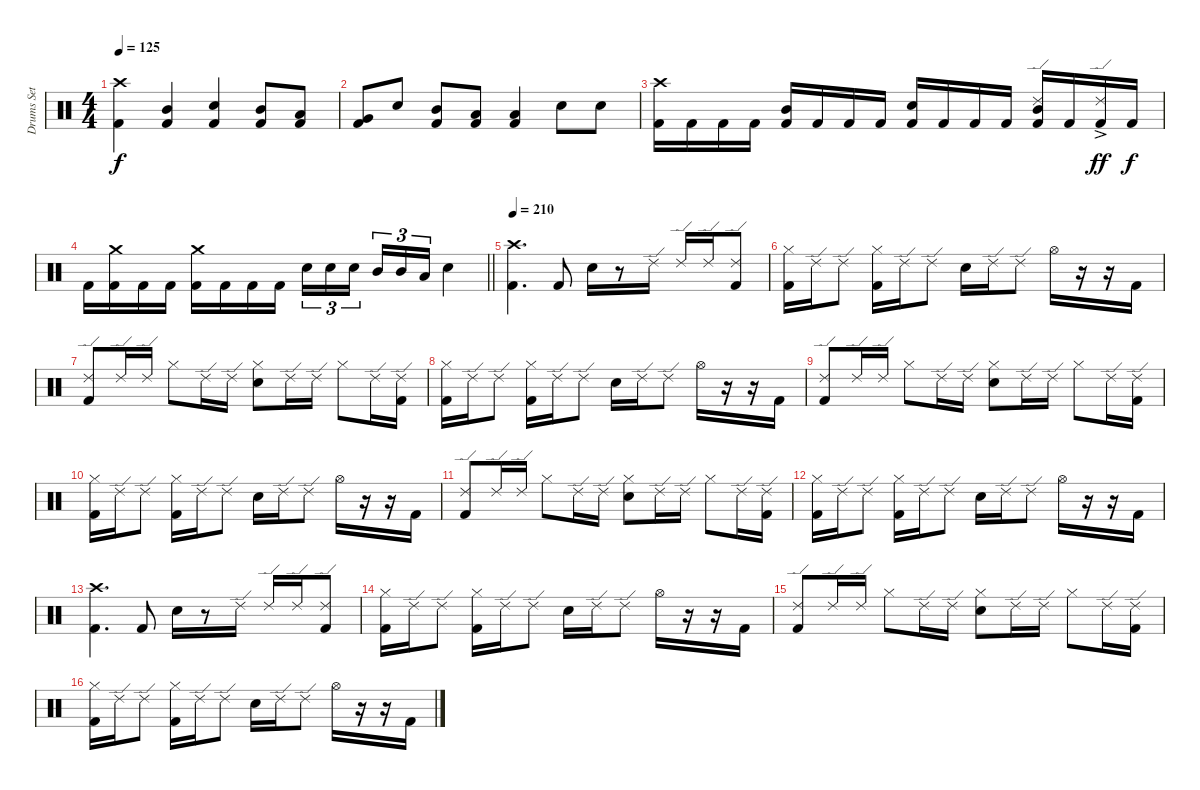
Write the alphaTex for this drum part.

\track ("Drums Set" "Drums Set") {instrument percussion}
\staff {score}
\articulation defaults
\ts (4 4)
\tempo 125
\clef neutral
\ks c
("Crash high (hit)" "Kick (hit) 2").4{dy f} ("Mid Tom (hit)" "Kick (hit) 2").4 ("Snare (hit) 2" "Kick (hit) 2").4 ("Mid Tom (hit)" "Kick (hit) 2").8 ("Low Tom (hit)" "Kick (hit) 2").8 |
("Very Low Tom (hit)" "Kick (hit) 2").8 "Snare (hit) 2".8 ("Mid Tom (hit)" "Kick (hit) 2").8 ("Low Tom (hit)" "Kick (hit) 2").8 ("Low Floor Tom (hit)" "Kick (hit) 2").4 "Snare (hit) 2".8 "Snare (hit) 2".8 |
("Crash high (hit)" "Kick (hit) 2").16 "Kick (hit) 2".16 "Kick (hit) 2".16 "Kick (hit) 2".16 ("Mid Tom (hit)" "Kick (hit) 2").16 "Kick (hit) 2".16 "Kick (hit) 2".16 "Kick (hit) 2".16 ("Snare (hit) 2" "Kick (hit) 2").16 "Kick (hit) 2".16 "Kick (hit) 2".16 "Kick (hit) 2".16 ("Ride (edge) 2" "Mid Tom (hit)" "Kick (hit) 2").16 "Kick (hit) 2".16 ("Ride (edge) 2"{ac} "Kick (hit) 2").16{dy ff} "Kick (hit) 2".16{dy f} |
\barLineRight lightlight "Kick (hit) 2".16
("Crash medium (hit)" "Kick (hit) 2").16 "Kick (hit) 2".16 "Kick (hit) 2".16 ("Crash medium (hit)" "Kick (hit) 2").16 "Kick (hit) 2".16 "Kick (hit) 2".16 "Kick (hit) 2".16 "Snare (hit) 2".16{tu (3 2)} "Snare (hit) 2".16{tu (3 2)} "Snare (hit) 2".16{tu (3 2) beam splitsecondary} "Mid Tom (hit)".16{tu (3 2)} "Mid Tom (hit)".16{tu (3 2)} "Low Tom (hit)".16{tu (3 2)} "Snare (hit) 2".4 |
\tempo 210
("Crash high (hit)" "Kick (hit) 2").4{d} "Kick (hit) 2".8 "Snare (hit) 2".16 r.8 "Ride (edge) 2".16 "Ride (edge) 2".16 "Ride (edge) 2".16 ("Ride (edge) 2" "Kick (hit) 2").8 |
("Hi-Hat (closed)" "Kick (hit) 2").16 "Ride (edge) 2".16 "Ride (edge) 2".8 ("Hi-Hat (closed)" "Kick (hit) 2").16 "Ride (edge) 2".16 "Ride (edge) 2".8 "Snare (hit) 2".16 "Ride (edge) 2".16 "Ride (edge) 2".8 "Hi-Hat (open)".16 r.16 r.16 "Kick (hit) 2".16 |
("Ride (edge) 2" "Kick (hit) 2").8 "Ride (edge) 2".16 "Ride (edge) 2".16 "Hi-Hat (closed)".8 "Ride (edge) 2".16 "Ride (edge) 2".16 ("Hi-Hat (closed)" "Snare (hit) 2").8 "Ride (edge) 2".16 "Ride (edge) 2".16 "Hi-Hat (closed)".8 "Ride (edge) 2".16 ("Ride (edge) 2" "Kick (hit) 2").16 |
("Hi-Hat (closed)" "Kick (hit) 2").16 "Ride (edge) 2".16 "Ride (edge) 2".8 ("Hi-Hat (closed)" "Kick (hit) 2").16 "Ride (edge) 2".16 "Ride (edge) 2".8 "Snare (hit) 2".16 "Ride (edge) 2".16 "Ride (edge) 2".8 "Hi-Hat (open)".16 r.16 r.16 "Kick (hit) 2".16 |
("Ride (edge) 2" "Kick (hit) 2").8 "Ride (edge) 2".16 "Ride (edge) 2".16 "Hi-Hat (closed)".8 "Ride (edge) 2".16 "Ride (edge) 2".16 ("Hi-Hat (closed)" "Snare (hit) 2").8 "Ride (edge) 2".16 "Ride (edge) 2".16 "Hi-Hat (closed)".8 "Ride (edge) 2".16 ("Ride (edge) 2" "Kick (hit) 2").16 |
("Hi-Hat (closed)" "Kick (hit) 2").16 "Ride (edge) 2".16 "Ride (edge) 2".8 ("Hi-Hat (closed)" "Kick (hit) 2").16 "Ride (edge) 2".16 "Ride (edge) 2".8 "Snare (hit) 2".16 "Ride (edge) 2".16 "Ride (edge) 2".8 "Hi-Hat (open)".16 r.16 r.16 "Kick (hit) 2".16 |
("Ride (edge) 2" "Kick (hit) 2").8 "Ride (edge) 2".16 "Ride (edge) 2".16 "Hi-Hat (closed)".8 "Ride (edge) 2".16 "Ride (edge) 2".16 ("Hi-Hat (closed)" "Snare (hit) 2").8 "Ride (edge) 2".16 "Ride (edge) 2".16 "Hi-Hat (closed)".8 "Ride (edge) 2".16 ("Ride (edge) 2" "Kick (hit) 2").16 |
("Hi-Hat (closed)" "Kick (hit) 2").16 "Ride (edge) 2".16 "Ride (edge) 2".8 ("Hi-Hat (closed)" "Kick (hit) 2").16 "Ride (edge) 2".16 "Ride (edge) 2".8 "Snare (hit) 2".16 "Ride (edge) 2".16 "Ride (edge) 2".8 "Hi-Hat (open)".16 r.16 r.16 "Kick (hit) 2".16 |
("Crash high (hit)" "Kick (hit) 2").4{d} "Kick (hit) 2".8 "Snare (hit) 2".16 r.8 "Ride (edge) 2".16 "Ride (edge) 2".16 "Ride (edge) 2".16 ("Ride (edge) 2" "Kick (hit) 2").8 |
("Hi-Hat (closed)" "Kick (hit) 2").16 "Ride (edge) 2".16 "Ride (edge) 2".8 ("Hi-Hat (closed)" "Kick (hit) 2").16 "Ride (edge) 2".16 "Ride (edge) 2".8 "Snare (hit) 2".16 "Ride (edge) 2".16 "Ride (edge) 2".8 "Hi-Hat (open)".16 r.16 r.16 "Kick (hit) 2".16 |
("Ride (edge) 2" "Kick (hit) 2").8 "Ride (edge) 2".16 "Ride (edge) 2".16 "Hi-Hat (closed)".8 "Ride (edge) 2".16 "Ride (edge) 2".16 ("Hi-Hat (closed)" "Snare (hit) 2").8 "Ride (edge) 2".16 "Ride (edge) 2".16 "Hi-Hat (closed)".8 "Ride (edge) 2".16 ("Ride (edge) 2" "Kick (hit) 2").16 |
("Hi-Hat (closed)" "Kick (hit) 2").16 "Ride (edge) 2".16 "Ride (edge) 2".8 ("Hi-Hat (closed)" "Kick (hit) 2").16 "Ride (edge) 2".16 "Ride (edge) 2".8 "Snare (hit) 2".16 "Ride (edge) 2".16 "Ride (edge) 2".8 "Hi-Hat (open)".16 r.16 r.16 "Kick (hit) 2".16
